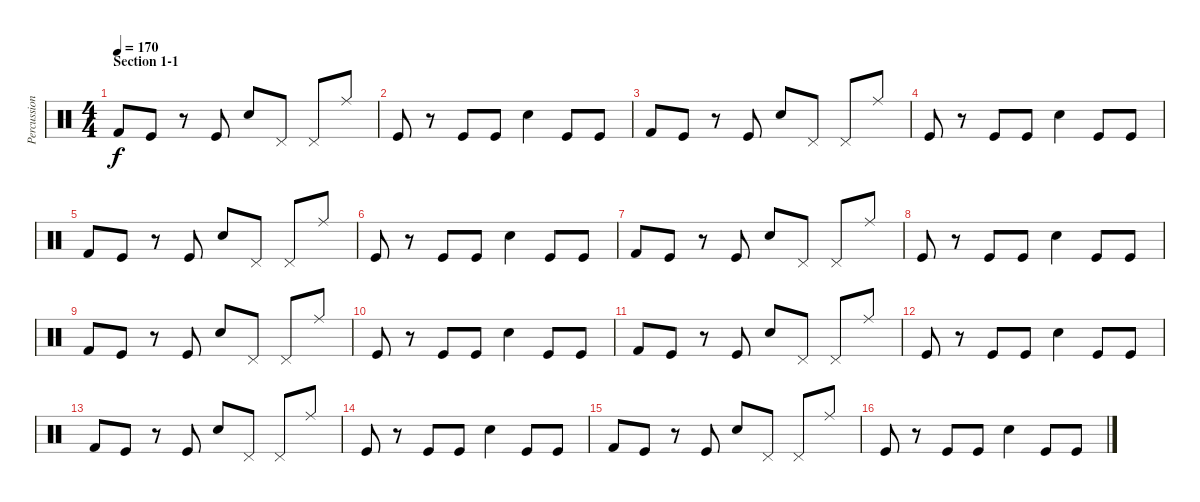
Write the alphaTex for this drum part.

\track ("Percussion" "Percussion") {instrument percussion}
\staff {score}
\articulation defaults
\ts (4 4)
\section ("" "Section 1-1")
\tempo 170
\clef neutral
\ks c "Kick (hit) 2".8{dy f} "Kick (hit)".8
r.8 "Kick (hit)".8 "Electric Snare (hit)".8 "Pedal Hi-Hat (hit)".8 "Pedal Hi-Hat (hit)".8 "Ride (middle)".8 |
"Kick (hit)".8 r.8 "Kick (hit)".8 "Kick (hit)".8 "Electric Snare (hit)".4 "Kick (hit)".8 "Kick (hit)".8 |
"Kick (hit) 2".8 "Kick (hit)".8 r.8 "Kick (hit)".8 "Electric Snare (hit)".8 "Pedal Hi-Hat (hit)".8 "Pedal Hi-Hat (hit)".8 "Ride (middle)".8 |
"Kick (hit)".8 r.8 "Kick (hit)".8 "Kick (hit)".8 "Electric Snare (hit)".4 "Kick (hit)".8 "Kick (hit)".8 |
"Kick (hit) 2".8 "Kick (hit)".8 r.8 "Kick (hit)".8 "Electric Snare (hit)".8 "Pedal Hi-Hat (hit)".8 "Pedal Hi-Hat (hit)".8 "Ride (middle)".8 |
"Kick (hit)".8 r.8 "Kick (hit)".8 "Kick (hit)".8 "Electric Snare (hit)".4 "Kick (hit)".8 "Kick (hit)".8 |
"Kick (hit) 2".8 "Kick (hit)".8 r.8 "Kick (hit)".8 "Electric Snare (hit)".8 "Pedal Hi-Hat (hit)".8 "Pedal Hi-Hat (hit)".8 "Ride (middle)".8 |
"Kick (hit)".8 r.8 "Kick (hit)".8 "Kick (hit)".8 "Electric Snare (hit)".4 "Kick (hit)".8 "Kick (hit)".8 |
"Kick (hit) 2".8 "Kick (hit)".8 r.8 "Kick (hit)".8 "Electric Snare (hit)".8 "Pedal Hi-Hat (hit)".8 "Pedal Hi-Hat (hit)".8 "Ride (middle)".8 |
"Kick (hit)".8 r.8 "Kick (hit)".8 "Kick (hit)".8 "Electric Snare (hit)".4 "Kick (hit)".8 "Kick (hit)".8 |
"Kick (hit) 2".8 "Kick (hit)".8 r.8 "Kick (hit)".8 "Electric Snare (hit)".8 "Pedal Hi-Hat (hit)".8 "Pedal Hi-Hat (hit)".8 "Ride (middle)".8 |
"Kick (hit)".8 r.8 "Kick (hit)".8 "Kick (hit)".8 "Electric Snare (hit)".4 "Kick (hit)".8 "Kick (hit)".8 |
"Kick (hit) 2".8 "Kick (hit)".8 r.8 "Kick (hit)".8 "Electric Snare (hit)".8 "Pedal Hi-Hat (hit)".8 "Pedal Hi-Hat (hit)".8 "Ride (middle)".8 |
"Kick (hit)".8 r.8 "Kick (hit)".8 "Kick (hit)".8 "Electric Snare (hit)".4 "Kick (hit)".8 "Kick (hit)".8 |
"Kick (hit) 2".8 "Kick (hit)".8 r.8 "Kick (hit)".8 "Electric Snare (hit)".8 "Pedal Hi-Hat (hit)".8 "Pedal Hi-Hat (hit)".8 "Ride (middle)".8 |
"Kick (hit)".8 r.8 "Kick (hit)".8 "Kick (hit)".8 "Electric Snare (hit)".4 "Kick (hit)".8 "Kick (hit)".8
